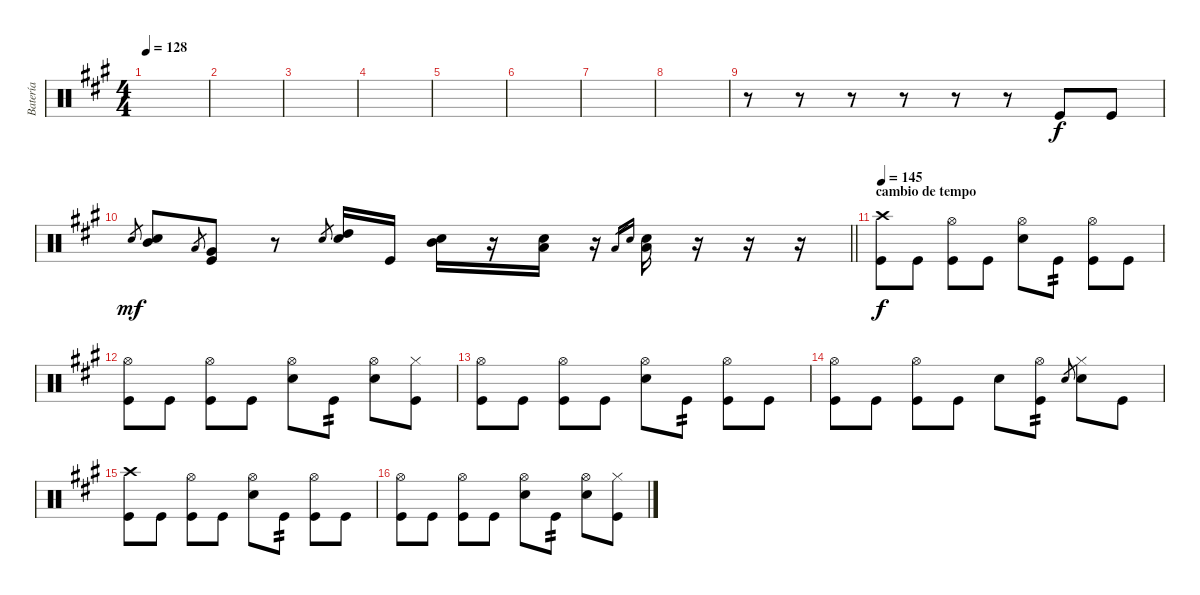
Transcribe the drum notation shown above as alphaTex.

\track ("Batería" "Batería") {instrument percussion}
\staff {score}
\articulation defaults
\ts (4 4)
\tempo 128
\clef neutral
\ks a
|
|
|
|
|
|
|
|
r.8 r.8 r.8 r.8 r.8 r.8 "Kick (hit)".8{dy f} "Kick (hit)".8 |
\barLineRight lightlight "Electric Snare (hit)".8{gr dy mf}
("Mid Tom (hit)" "Electric Snare (hit)").8 "Low Tom (hit)".8{gr} ("Very Low Tom (hit)" "Kick (hit)").8 r.8 "Electric Snare (hit)".8{gr} ("High Tom (hit)" "Electric Snare (hit)").16 "Kick (hit)".16 ("Mid Tom (hit)" "Electric Snare (hit)").16{bu 60} r.16 ("Low Tom (hit)" "Electric Snare (hit)").16{bd 60} r.16 "Low Floor Tom (hit)".16{gr} "Electric Snare (hit)".16{gr} ("Low Floor Tom (hit)" "Electric Snare (hit)").16 r.16 r.16 r.16 |
\section ("" "cambio de tempo")
\tempo 145
("Crash high (hit)" "Kick (hit)").8{dy f} "Kick (hit)".8 ("Hi-Hat (open)" "Kick (hit)").8 "Kick (hit)".8 ("Hi-Hat (open)" "Electric Snare (hit)").8 "Kick (hit)".8{tp 2} ("Hi-Hat (open)" "Kick (hit)").8 "Kick (hit)".8 |
("Hi-Hat (open)" "Kick (hit)").8 "Kick (hit)".8 ("Hi-Hat (open)" "Kick (hit)").8 "Kick (hit)".8 ("Hi-Hat (open)" "Electric Snare (hit)").8 "Kick (hit)".8{tp 2} ("Hi-Hat (open)" "Electric Snare (hit)").8 ("Hi-Hat (closed)" "Kick (hit)").8 |
("Hi-Hat (open)" "Kick (hit)").8 "Kick (hit)".8 ("Hi-Hat (open)" "Kick (hit)").8 "Kick (hit)".8 ("Hi-Hat (open)" "Electric Snare (hit)").8 "Kick (hit)".8{tp 2} ("Hi-Hat (open)" "Kick (hit)").8 "Kick (hit)".8 |
("Hi-Hat (open)" "Kick (hit)").8 "Kick (hit)".8 ("Hi-Hat (open)" "Kick (hit)").8 "Kick (hit)".8 "Electric Snare (hit)".8 ("Hi-Hat (open)" "Kick (hit)").8{tp 2} "Electric Snare (hit)".8{gr} ("Hi-Hat (closed)" "Electric Snare (hit)").8 "Kick (hit)".8 |
("Crash high (hit)" "Kick (hit)").8 "Kick (hit)".8 ("Hi-Hat (open)" "Kick (hit)").8 "Kick (hit)".8 ("Hi-Hat (open)" "Electric Snare (hit)").8 "Kick (hit)".8{tp 2} ("Hi-Hat (open)" "Kick (hit)").8 "Kick (hit)".8 |
("Hi-Hat (open)" "Kick (hit)").8 "Kick (hit)".8 ("Hi-Hat (open)" "Kick (hit)").8 "Kick (hit)".8 ("Hi-Hat (open)" "Electric Snare (hit)").8 "Kick (hit)".8{tp 2} ("Hi-Hat (open)" "Electric Snare (hit)").8 ("Hi-Hat (closed)" "Kick (hit)").8
